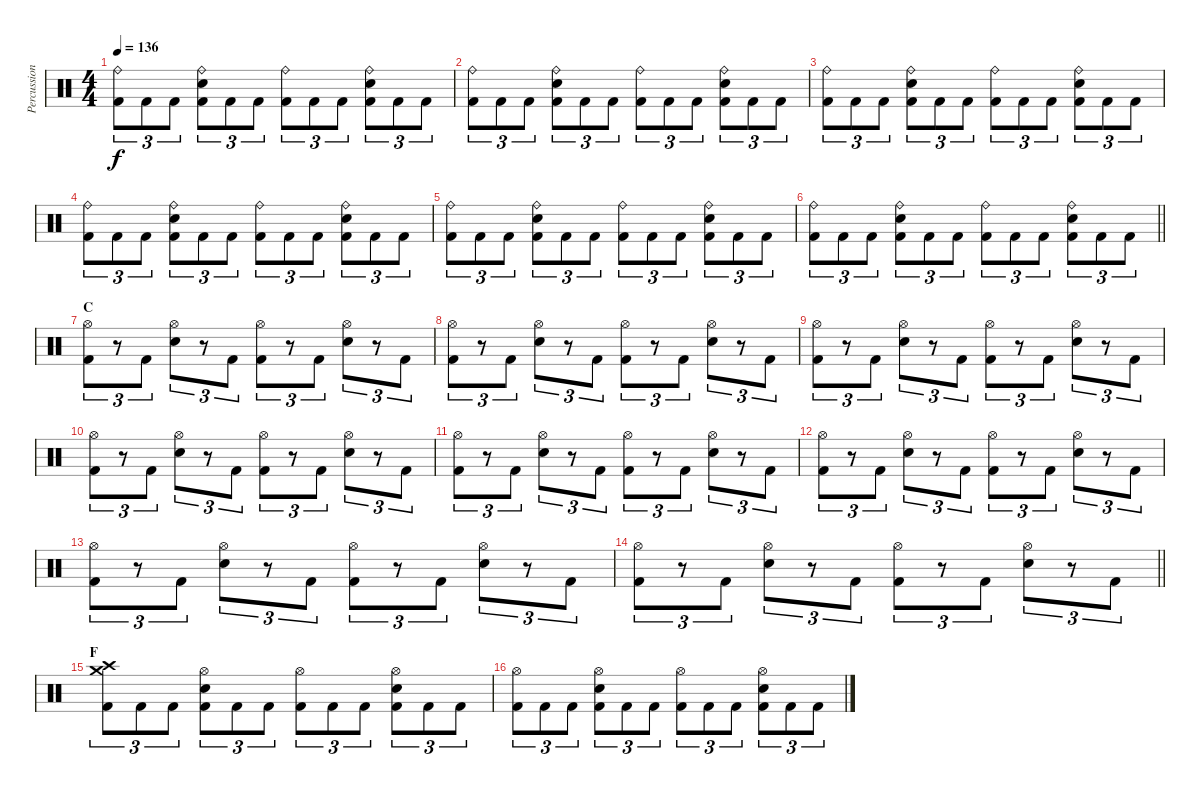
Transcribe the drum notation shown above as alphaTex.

\track ("Percussion" "Percussion") {instrument percussion}
\staff {score}
\articulation defaults
\ts (4 4)
\tempo 136
\clef neutral
\ks c
("Ride (bell)" "Kick (hit) 2").8{tu (3 2) dy f} "Kick (hit) 2".8{tu (3 2)} "Kick (hit) 2".8{tu (3 2)} ("Ride (bell)" "Electric Snare (hit)" "Kick (hit) 2").8{tu (3 2)} "Kick (hit) 2".8{tu (3 2)} "Kick (hit) 2".8{tu (3 2)} ("Ride (bell)" "Kick (hit) 2").8{tu (3 2)} "Kick (hit) 2".8{tu (3 2)} "Kick (hit) 2".8{tu (3 2)} ("Ride (bell)" "Electric Snare (hit)" "Kick (hit) 2").8{tu (3 2)} "Kick (hit) 2".8{tu (3 2)} "Kick (hit) 2".8{tu (3 2)} |
("Ride (bell)" "Kick (hit) 2").8{tu (3 2)} "Kick (hit) 2".8{tu (3 2)} "Kick (hit) 2".8{tu (3 2)} ("Ride (bell)" "Electric Snare (hit)" "Kick (hit) 2").8{tu (3 2)} "Kick (hit) 2".8{tu (3 2)} "Kick (hit) 2".8{tu (3 2)} ("Ride (bell)" "Kick (hit) 2").8{tu (3 2)} "Kick (hit) 2".8{tu (3 2)} "Kick (hit) 2".8{tu (3 2)} ("Ride (bell)" "Electric Snare (hit)" "Kick (hit) 2").8{tu (3 2)} "Kick (hit) 2".8{tu (3 2)} "Kick (hit) 2".8{tu (3 2)} |
("Ride (bell)" "Kick (hit) 2").8{tu (3 2)} "Kick (hit) 2".8{tu (3 2)} "Kick (hit) 2".8{tu (3 2)} ("Ride (bell)" "Electric Snare (hit)" "Kick (hit) 2").8{tu (3 2)} "Kick (hit) 2".8{tu (3 2)} "Kick (hit) 2".8{tu (3 2)} ("Ride (bell)" "Kick (hit) 2").8{tu (3 2)} "Kick (hit) 2".8{tu (3 2)} "Kick (hit) 2".8{tu (3 2)} ("Ride (bell)" "Electric Snare (hit)" "Kick (hit) 2").8{tu (3 2)} "Kick (hit) 2".8{tu (3 2)} "Kick (hit) 2".8{tu (3 2)} |
("Ride (bell)" "Kick (hit) 2").8{tu (3 2)} "Kick (hit) 2".8{tu (3 2)} "Kick (hit) 2".8{tu (3 2)} ("Ride (bell)" "Electric Snare (hit)" "Kick (hit) 2").8{tu (3 2)} "Kick (hit) 2".8{tu (3 2)} "Kick (hit) 2".8{tu (3 2)} ("Ride (bell)" "Kick (hit) 2").8{tu (3 2)} "Kick (hit) 2".8{tu (3 2)} "Kick (hit) 2".8{tu (3 2)} ("Ride (bell)" "Electric Snare (hit)" "Kick (hit) 2").8{tu (3 2)} "Kick (hit) 2".8{tu (3 2)} "Kick (hit) 2".8{tu (3 2)} |
("Ride (bell)" "Kick (hit) 2").8{tu (3 2)} "Kick (hit) 2".8{tu (3 2)} "Kick (hit) 2".8{tu (3 2)} ("Ride (bell)" "Electric Snare (hit)" "Kick (hit) 2").8{tu (3 2)} "Kick (hit) 2".8{tu (3 2)} "Kick (hit) 2".8{tu (3 2)} ("Ride (bell)" "Kick (hit) 2").8{tu (3 2)} "Kick (hit) 2".8{tu (3 2)} "Kick (hit) 2".8{tu (3 2)} ("Ride (bell)" "Electric Snare (hit)" "Kick (hit) 2").8{tu (3 2)} "Kick (hit) 2".8{tu (3 2)} "Kick (hit) 2".8{tu (3 2)} |
\barLineRight lightlight
("Ride (bell)" "Kick (hit) 2").8{tu (3 2)} "Kick (hit) 2".8{tu (3 2)} "Kick (hit) 2".8{tu (3 2)} ("Ride (bell)" "Electric Snare (hit)" "Kick (hit) 2").8{tu (3 2)} "Kick (hit) 2".8{tu (3 2)} "Kick (hit) 2".8{tu (3 2)} ("Ride (bell)" "Kick (hit) 2").8{tu (3 2)} "Kick (hit) 2".8{tu (3 2)} "Kick (hit) 2".8{tu (3 2)} ("Ride (bell)" "Electric Snare (hit)" "Kick (hit) 2").8{tu (3 2)} "Kick (hit) 2".8{tu (3 2)} "Kick (hit) 2".8{tu (3 2)} |
\section ("" "C")
("Hi-Hat (open)" "Kick (hit) 2").8{tu (3 2)} r.8{tu (3 2)} "Kick (hit) 2".8{tu (3 2)} ("Hi-Hat (open)" "Electric Snare (hit)").8{tu (3 2)} r.8{tu (3 2)} "Kick (hit) 2".8{tu (3 2)} ("Hi-Hat (open)" "Kick (hit) 2").8{tu (3 2)} r.8{tu (3 2)} "Kick (hit) 2".8{tu (3 2)} ("Hi-Hat (open)" "Electric Snare (hit)").8{tu (3 2)} r.8{tu (3 2)} "Kick (hit) 2".8{tu (3 2)} |
("Hi-Hat (open)" "Kick (hit) 2").8{tu (3 2)} r.8{tu (3 2)} "Kick (hit) 2".8{tu (3 2)} ("Hi-Hat (open)" "Electric Snare (hit)").8{tu (3 2)} r.8{tu (3 2)} "Kick (hit) 2".8{tu (3 2)} ("Hi-Hat (open)" "Kick (hit) 2").8{tu (3 2)} r.8{tu (3 2)} "Kick (hit) 2".8{tu (3 2)} ("Hi-Hat (open)" "Electric Snare (hit)").8{tu (3 2)} r.8{tu (3 2)} "Kick (hit) 2".8{tu (3 2)} |
("Hi-Hat (open)" "Kick (hit) 2").8{tu (3 2)} r.8{tu (3 2)} "Kick (hit) 2".8{tu (3 2)} ("Hi-Hat (open)" "Electric Snare (hit)").8{tu (3 2)} r.8{tu (3 2)} "Kick (hit) 2".8{tu (3 2)} ("Hi-Hat (open)" "Kick (hit) 2").8{tu (3 2)} r.8{tu (3 2)} "Kick (hit) 2".8{tu (3 2)} ("Hi-Hat (open)" "Electric Snare (hit)").8{tu (3 2)} r.8{tu (3 2)} "Kick (hit) 2".8{tu (3 2)} |
("Hi-Hat (open)" "Kick (hit) 2").8{tu (3 2)} r.8{tu (3 2)} "Kick (hit) 2".8{tu (3 2)} ("Hi-Hat (open)" "Electric Snare (hit)").8{tu (3 2)} r.8{tu (3 2)} "Kick (hit) 2".8{tu (3 2)} ("Hi-Hat (open)" "Kick (hit) 2").8{tu (3 2)} r.8{tu (3 2)} "Kick (hit) 2".8{tu (3 2)} ("Hi-Hat (open)" "Electric Snare (hit)").8{tu (3 2)} r.8{tu (3 2)} "Kick (hit) 2".8{tu (3 2)} |
("Hi-Hat (open)" "Kick (hit) 2").8{tu (3 2)} r.8{tu (3 2)} "Kick (hit) 2".8{tu (3 2)} ("Hi-Hat (open)" "Electric Snare (hit)").8{tu (3 2)} r.8{tu (3 2)} "Kick (hit) 2".8{tu (3 2)} ("Hi-Hat (open)" "Kick (hit) 2").8{tu (3 2)} r.8{tu (3 2)} "Kick (hit) 2".8{tu (3 2)} ("Hi-Hat (open)" "Electric Snare (hit)").8{tu (3 2)} r.8{tu (3 2)} "Kick (hit) 2".8{tu (3 2)} |
("Hi-Hat (open)" "Kick (hit) 2").8{tu (3 2)} r.8{tu (3 2)} "Kick (hit) 2".8{tu (3 2)} ("Hi-Hat (open)" "Electric Snare (hit)").8{tu (3 2)} r.8{tu (3 2)} "Kick (hit) 2".8{tu (3 2)} ("Hi-Hat (open)" "Kick (hit) 2").8{tu (3 2)} r.8{tu (3 2)} "Kick (hit) 2".8{tu (3 2)} ("Hi-Hat (open)" "Electric Snare (hit)").8{tu (3 2)} r.8{tu (3 2)} "Kick (hit) 2".8{tu (3 2)} |
("Hi-Hat (open)" "Kick (hit) 2").8{tu (3 2)} r.8{tu (3 2)} "Kick (hit) 2".8{tu (3 2)} ("Hi-Hat (open)" "Electric Snare (hit)").8{tu (3 2)} r.8{tu (3 2)} "Kick (hit) 2".8{tu (3 2)} ("Hi-Hat (open)" "Kick (hit) 2").8{tu (3 2)} r.8{tu (3 2)} "Kick (hit) 2".8{tu (3 2)} ("Hi-Hat (open)" "Electric Snare (hit)").8{tu (3 2)} r.8{tu (3 2)} "Kick (hit) 2".8{tu (3 2)} |
\barLineRight lightlight
("Hi-Hat (open)" "Kick (hit) 2").8{tu (3 2)} r.8{tu (3 2)} "Kick (hit) 2".8{tu (3 2)} ("Hi-Hat (open)" "Electric Snare (hit)").8{tu (3 2)} r.8{tu (3 2)} "Kick (hit) 2".8{tu (3 2)} ("Hi-Hat (open)" "Kick (hit) 2").8{tu (3 2)} r.8{tu (3 2)} "Kick (hit) 2".8{tu (3 2)} ("Hi-Hat (open)" "Electric Snare (hit)").8{tu (3 2)} r.8{tu (3 2)} "Kick (hit) 2".8{tu (3 2)} |
\section ("" "F")
("Crash medium (hit)" "Crash high (hit)" "Kick (hit) 2").8{tu (3 2)} "Kick (hit) 2".8{tu (3 2)} "Kick (hit) 2".8{tu (3 2)} ("Hi-Hat (open)" "Electric Snare (hit)" "Kick (hit) 2").8{tu (3 2)} "Kick (hit) 2".8{tu (3 2)} "Kick (hit) 2".8{tu (3 2)} ("Hi-Hat (open)" "Kick (hit) 2").8{tu (3 2)} "Kick (hit) 2".8{tu (3 2)} "Kick (hit) 2".8{tu (3 2)} ("Hi-Hat (open)" "Electric Snare (hit)" "Kick (hit) 2").8{tu (3 2)} "Kick (hit) 2".8{tu (3 2)} "Kick (hit) 2".8{tu (3 2)} |
("Hi-Hat (open)" "Kick (hit) 2").8{tu (3 2)} "Kick (hit) 2".8{tu (3 2)} "Kick (hit) 2".8{tu (3 2)} ("Hi-Hat (open)" "Electric Snare (hit)" "Kick (hit) 2").8{tu (3 2)} "Kick (hit) 2".8{tu (3 2)} "Kick (hit) 2".8{tu (3 2)} ("Hi-Hat (open)" "Kick (hit) 2").8{tu (3 2)} "Kick (hit) 2".8{tu (3 2)} "Kick (hit) 2".8{tu (3 2)} ("Hi-Hat (open)" "Electric Snare (hit)" "Kick (hit) 2").8{tu (3 2)} "Kick (hit) 2".8{tu (3 2)} "Kick (hit) 2".8{tu (3 2)}
